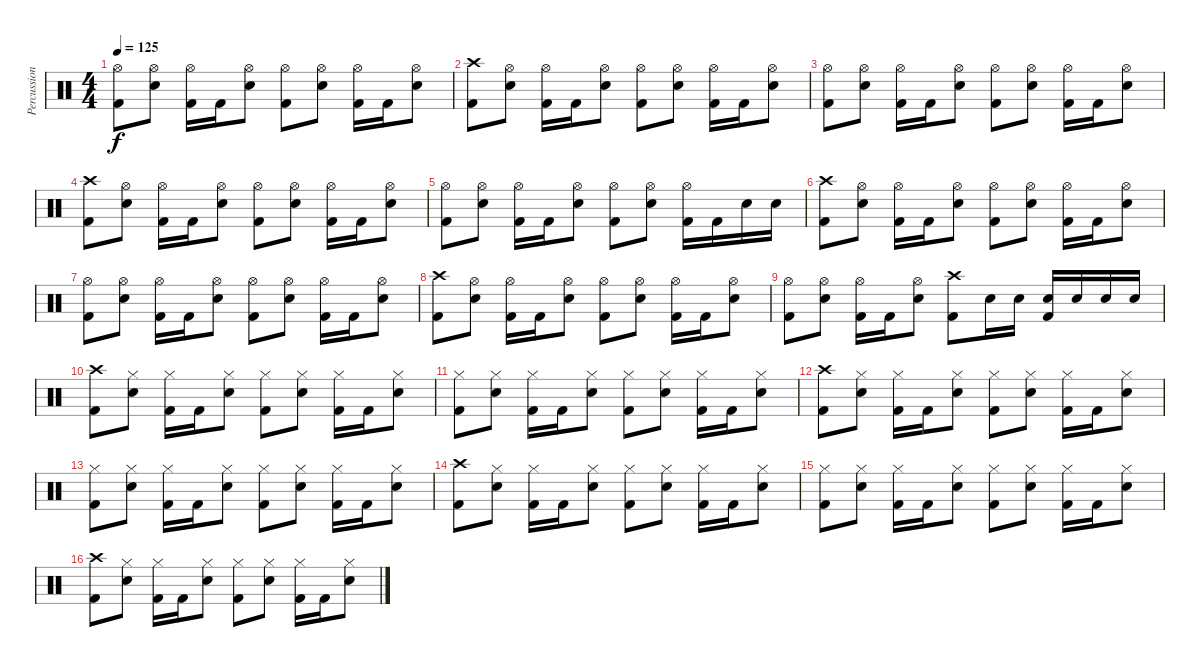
\track ("Percussion" "Percussion") {instrument percussion}
\staff {score}
\articulation defaults
\ts (4 4)
\tempo 125
\clef neutral
\ks c
("Hi-Hat (open)" "Kick (hit) 2").8{dy f} ("Hi-Hat (open)" "Electric Snare (hit)").8 ("Hi-Hat (open)" "Kick (hit) 2").16 "Kick (hit) 2".16 ("Hi-Hat (open)" "Electric Snare (hit)").8 ("Hi-Hat (open)" "Kick (hit) 2").8 ("Hi-Hat (open)" "Electric Snare (hit)").8 ("Hi-Hat (open)" "Kick (hit) 2").16 "Kick (hit) 2".16 ("Hi-Hat (open)" "Electric Snare (hit)").8 |
("Crash high (hit)" "Kick (hit) 2").8 ("Hi-Hat (open)" "Electric Snare (hit)").8 ("Hi-Hat (open)" "Kick (hit) 2").16 "Kick (hit) 2".16 ("Hi-Hat (open)" "Electric Snare (hit)").8 ("Hi-Hat (open)" "Kick (hit) 2").8 ("Hi-Hat (open)" "Electric Snare (hit)").8 ("Hi-Hat (open)" "Kick (hit) 2").16 "Kick (hit) 2".16 ("Hi-Hat (open)" "Electric Snare (hit)").8 |
("Hi-Hat (open)" "Kick (hit) 2").8 ("Hi-Hat (open)" "Electric Snare (hit)").8 ("Hi-Hat (open)" "Kick (hit) 2").16 "Kick (hit) 2".16 ("Hi-Hat (open)" "Electric Snare (hit)").8 ("Hi-Hat (open)" "Kick (hit) 2").8 ("Hi-Hat (open)" "Electric Snare (hit)").8 ("Hi-Hat (open)" "Kick (hit) 2").16 "Kick (hit) 2".16 ("Hi-Hat (open)" "Electric Snare (hit)").8 |
("Crash high (hit)" "Kick (hit) 2").8 ("Hi-Hat (open)" "Electric Snare (hit)").8 ("Hi-Hat (open)" "Kick (hit) 2").16 "Kick (hit) 2".16 ("Hi-Hat (open)" "Electric Snare (hit)").8 ("Hi-Hat (open)" "Kick (hit) 2").8 ("Hi-Hat (open)" "Electric Snare (hit)").8 ("Hi-Hat (open)" "Kick (hit) 2").16 "Kick (hit) 2".16 ("Hi-Hat (open)" "Electric Snare (hit)").8 |
("Hi-Hat (open)" "Kick (hit) 2").8 ("Hi-Hat (open)" "Electric Snare (hit)").8 ("Hi-Hat (open)" "Kick (hit) 2").16 "Kick (hit) 2".16 ("Hi-Hat (open)" "Electric Snare (hit)").8 ("Hi-Hat (open)" "Kick (hit) 2").8 ("Hi-Hat (open)" "Electric Snare (hit)").8 ("Hi-Hat (open)" "Kick (hit) 2").16 "Kick (hit) 2".16 "Electric Snare (hit)".16 "Electric Snare (hit)".16 |
("Crash high (hit)" "Kick (hit) 2").8 ("Hi-Hat (open)" "Electric Snare (hit)").8 ("Hi-Hat (open)" "Kick (hit) 2").16 "Kick (hit) 2".16 ("Hi-Hat (open)" "Electric Snare (hit)").8 ("Hi-Hat (open)" "Kick (hit) 2").8 ("Hi-Hat (open)" "Electric Snare (hit)").8 ("Hi-Hat (open)" "Kick (hit) 2").16 "Kick (hit) 2".16 ("Hi-Hat (open)" "Electric Snare (hit)").8 |
("Hi-Hat (open)" "Kick (hit) 2").8 ("Hi-Hat (open)" "Electric Snare (hit)").8 ("Hi-Hat (open)" "Kick (hit) 2").16 "Kick (hit) 2".16 ("Hi-Hat (open)" "Electric Snare (hit)").8 ("Hi-Hat (open)" "Kick (hit) 2").8 ("Hi-Hat (open)" "Electric Snare (hit)").8 ("Hi-Hat (open)" "Kick (hit) 2").16 "Kick (hit) 2".16 ("Hi-Hat (open)" "Electric Snare (hit)").8 |
("Crash high (hit)" "Kick (hit) 2").8 ("Hi-Hat (open)" "Electric Snare (hit)").8 ("Hi-Hat (open)" "Kick (hit) 2").16 "Kick (hit) 2".16 ("Hi-Hat (open)" "Electric Snare (hit)").8 ("Hi-Hat (open)" "Kick (hit) 2").8 ("Hi-Hat (open)" "Electric Snare (hit)").8 ("Hi-Hat (open)" "Kick (hit) 2").16 "Kick (hit) 2".16 ("Hi-Hat (open)" "Electric Snare (hit)").8 |
("Hi-Hat (open)" "Kick (hit) 2").8 ("Hi-Hat (open)" "Electric Snare (hit)").8 ("Hi-Hat (open)" "Kick (hit) 2").16 "Kick (hit) 2".16 ("Hi-Hat (open)" "Electric Snare (hit)").8 ("Crash high (hit)" "Kick (hit) 2").8 "Electric Snare (hit)".16 "Electric Snare (hit)".16 ("Electric Snare (hit)" "Kick (hit) 2").16 "Electric Snare (hit)".16 "Electric Snare (hit)".16 "Electric Snare (hit)".16 |
("Crash high (hit)" "Kick (hit) 2").8 ("Hi-Hat (closed)" "Electric Snare (hit)").8 ("Hi-Hat (closed)" "Kick (hit) 2").16 "Kick (hit) 2".16 ("Hi-Hat (closed)" "Electric Snare (hit)").8 ("Hi-Hat (closed)" "Kick (hit) 2").8 ("Hi-Hat (closed)" "Electric Snare (hit)").8 ("Hi-Hat (closed)" "Kick (hit) 2").16 "Kick (hit) 2".16 ("Hi-Hat (closed)" "Electric Snare (hit)").8 |
("Hi-Hat (closed)" "Kick (hit) 2").8 ("Hi-Hat (closed)" "Electric Snare (hit)").8 ("Hi-Hat (closed)" "Kick (hit) 2").16 "Kick (hit) 2".16 ("Hi-Hat (closed)" "Electric Snare (hit)").8 ("Hi-Hat (closed)" "Kick (hit) 2").8 ("Hi-Hat (closed)" "Electric Snare (hit)").8 ("Hi-Hat (closed)" "Kick (hit) 2").16 "Kick (hit) 2".16 ("Hi-Hat (closed)" "Electric Snare (hit)").8 |
("Crash high (hit)" "Kick (hit) 2").8 ("Hi-Hat (closed)" "Electric Snare (hit)").8 ("Hi-Hat (closed)" "Kick (hit) 2").16 "Kick (hit) 2".16 ("Hi-Hat (closed)" "Electric Snare (hit)").8 ("Hi-Hat (closed)" "Kick (hit) 2").8 ("Hi-Hat (closed)" "Electric Snare (hit)").8 ("Hi-Hat (closed)" "Kick (hit) 2").16 "Kick (hit) 2".16 ("Hi-Hat (closed)" "Electric Snare (hit)").8 |
("Hi-Hat (closed)" "Kick (hit) 2").8 ("Hi-Hat (closed)" "Electric Snare (hit)").8 ("Hi-Hat (closed)" "Kick (hit) 2").16 "Kick (hit) 2".16 ("Hi-Hat (closed)" "Electric Snare (hit)").8 ("Hi-Hat (closed)" "Kick (hit) 2").8 ("Hi-Hat (closed)" "Electric Snare (hit)").8 ("Hi-Hat (closed)" "Kick (hit) 2").16 "Kick (hit) 2".16 ("Hi-Hat (closed)" "Electric Snare (hit)").8 |
("Crash high (hit)" "Kick (hit) 2").8 ("Hi-Hat (closed)" "Electric Snare (hit)").8 ("Hi-Hat (closed)" "Kick (hit) 2").16 "Kick (hit) 2".16 ("Hi-Hat (closed)" "Electric Snare (hit)").8 ("Hi-Hat (closed)" "Kick (hit) 2").8 ("Hi-Hat (closed)" "Electric Snare (hit)").8 ("Hi-Hat (closed)" "Kick (hit) 2").16 "Kick (hit) 2".16 ("Hi-Hat (closed)" "Electric Snare (hit)").8 |
("Hi-Hat (closed)" "Kick (hit) 2").8 ("Hi-Hat (closed)" "Electric Snare (hit)").8 ("Hi-Hat (closed)" "Kick (hit) 2").16 "Kick (hit) 2".16 ("Hi-Hat (closed)" "Electric Snare (hit)").8 ("Hi-Hat (closed)" "Kick (hit) 2").8 ("Hi-Hat (closed)" "Electric Snare (hit)").8 ("Hi-Hat (closed)" "Kick (hit) 2").16 "Kick (hit) 2".16 ("Hi-Hat (closed)" "Electric Snare (hit)").8 |
("Crash high (hit)" "Kick (hit) 2").8 ("Hi-Hat (closed)" "Electric Snare (hit)").8 ("Hi-Hat (closed)" "Kick (hit) 2").16 "Kick (hit) 2".16 ("Hi-Hat (closed)" "Electric Snare (hit)").8 ("Hi-Hat (closed)" "Kick (hit) 2").8 ("Hi-Hat (closed)" "Electric Snare (hit)").8 ("Hi-Hat (closed)" "Kick (hit) 2").16 "Kick (hit) 2".16 ("Hi-Hat (closed)" "Electric Snare (hit)").8
